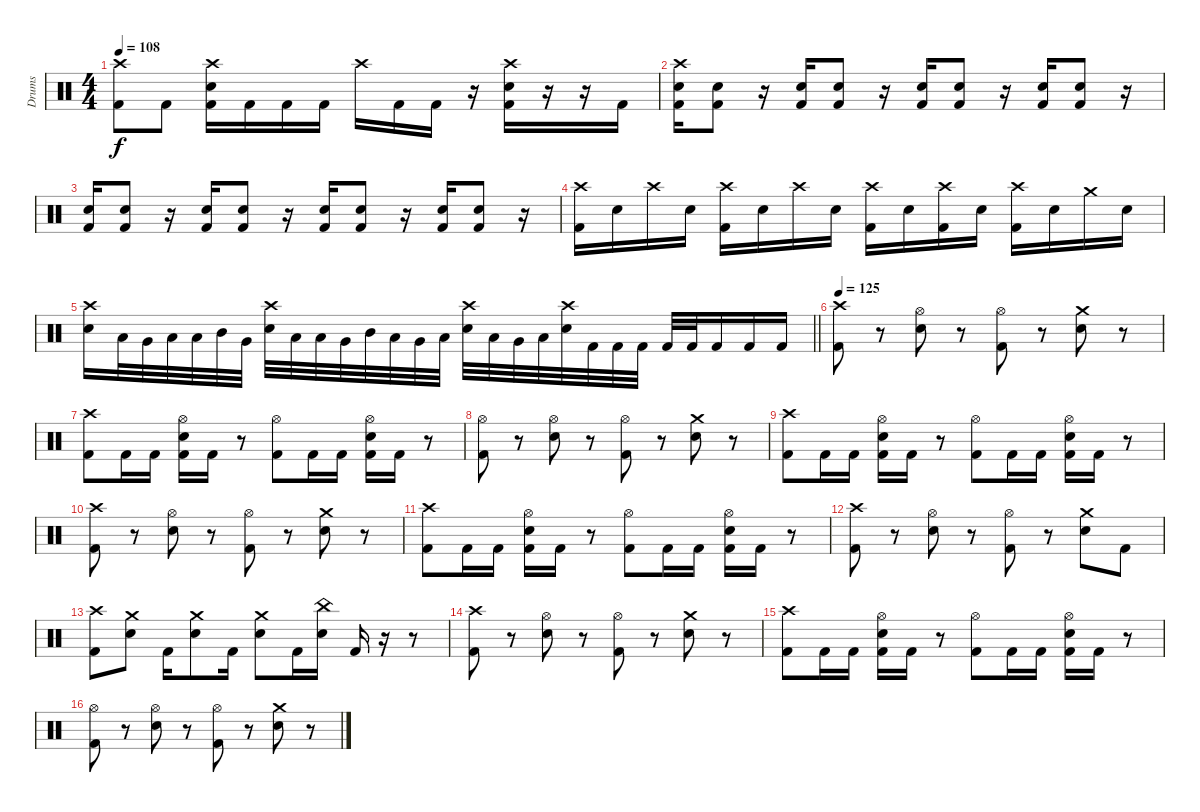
\track ("Drums" "Drums") {instrument percussion}
\staff
\articulation defaults
\ts (4 4)
\tempo 108
\clef neutral
\ks c
("Crash high (hit)" "Kick (hit) 2").8{dy f} "Kick (hit) 2".8 ("Crash high (hit)" "Electric Snare (hit)" "Kick (hit) 2").16 "Kick (hit) 2".16 "Kick (hit) 2".16 "Kick (hit) 2".16 "Crash high (hit)".16 "Kick (hit) 2".16 "Kick (hit) 2".16 r.16 ("Crash high (hit)" "Electric Snare (hit)" "Kick (hit) 2").16 r.16 r.16 "Kick (hit) 2".16 |
("Crash high (hit)" "Electric Snare (hit)" "Kick (hit) 2").16 ("Electric Snare (hit)" "Kick (hit) 2").8 r.16 ("Electric Snare (hit)" "Kick (hit) 2").16 ("Electric Snare (hit)" "Kick (hit) 2").8 r.16 ("Electric Snare (hit)" "Kick (hit) 2").16 ("Electric Snare (hit)" "Kick (hit) 2").8 r.16 ("Electric Snare (hit)" "Kick (hit) 2").16 ("Electric Snare (hit)" "Kick (hit) 2").8 r.16 |
("Electric Snare (hit)" "Kick (hit) 2").16 ("Electric Snare (hit)" "Kick (hit) 2").8 r.16 ("Electric Snare (hit)" "Kick (hit) 2").16 ("Electric Snare (hit)" "Kick (hit) 2").8 r.16 ("Electric Snare (hit)" "Kick (hit) 2").16 ("Electric Snare (hit)" "Kick (hit) 2").8 r.16 ("Electric Snare (hit)" "Kick (hit) 2").16 ("Electric Snare (hit)" "Kick (hit) 2").8 r.16 |
("Crash high (hit)" "Kick (hit) 2").16 "Electric Snare (hit)".16 "Crash high (hit)".16 "Electric Snare (hit)".16 ("Crash high (hit)" "Kick (hit) 2").16 "Electric Snare (hit)".16 "Crash high (hit)".16 "Electric Snare (hit)".16 ("Crash high (hit)" "Kick (hit) 2").16 "Electric Snare (hit)".16 ("Crash high (hit)" "Kick (hit) 2").16 "Electric Snare (hit)".16 ("Crash high (hit)" "Kick (hit) 2").16 "Electric Snare (hit)".16 "Crash medium (hit)".16 "Electric Snare (hit)".16 |
\barLineRight lightlight
("Crash high (hit)" "Electric Snare (hit)").16{volume 16} "Low Tom (hit)".32 "Very Low Tom (hit)".32 "Low Floor Tom (hit)".32 "Low Tom (hit)".32 "Mid Tom (hit)".32 "Very Low Tom (hit)".32 ("Crash high (hit)" "Electric Snare (hit)").32 "Low Tom (hit)".32 "Low Floor Tom (hit)".32 "Very Low Tom (hit)".32 "Mid Tom (hit)".32 "Low Tom (hit)".32 "Very Low Tom (hit)".32 "Low Tom (hit)".32 ("Crash high (hit)" "Electric Snare (hit)").32 "Low Tom (hit)".32 "Very Low Tom (hit)".32 "Low Floor Tom (hit)".32 ("Crash high (hit)" "Electric Snare (hit)").32 "Kick (hit) 2".32 "Kick (hit) 2".32 "Kick (hit) 2".32 "Kick (hit) 2".32 "Kick (hit) 2".32 "Kick (hit) 2".16 "Kick (hit) 2".16 "Kick (hit) 2".16 |
\section ("" "")
\tempo 125
("Crash high (hit)" "Kick (hit) 2").8{volume 14} r.8 ("Hi-Hat (open)" "Electric Snare (hit)").8 r.8 ("Hi-Hat (open)" "Kick (hit) 2").8 r.8 ("Crash medium (hit)" "Electric Snare (hit)").8 r.8 |
("Crash high (hit)" "Kick (hit) 2").8 "Kick (hit) 2".16 "Kick (hit) 2".16 ("Hi-Hat (open)" "Electric Snare (hit)" "Kick (hit) 2").16 "Kick (hit) 2".16 r.8 ("Hi-Hat (open)" "Kick (hit) 2").8 "Kick (hit) 2".16 "Kick (hit) 2".16 ("Hi-Hat (open)" "Electric Snare (hit)" "Kick (hit) 2").16 "Kick (hit) 2".16 r.8 |
("Hi-Hat (open)" "Kick (hit) 2").8 r.8 ("Hi-Hat (open)" "Electric Snare (hit)").8 r.8 ("Hi-Hat (open)" "Kick (hit) 2").8 r.8 ("Crash medium (hit)" "Electric Snare (hit)").8 r.8 |
("Crash high (hit)" "Kick (hit) 2").8 "Kick (hit) 2".16 "Kick (hit) 2".16 ("Hi-Hat (open)" "Electric Snare (hit)" "Kick (hit) 2").16 "Kick (hit) 2".16 r.8 ("Hi-Hat (open)" "Kick (hit) 2").8 "Kick (hit) 2".16 "Kick (hit) 2".16 ("Hi-Hat (open)" "Electric Snare (hit)" "Kick (hit) 2").16 "Kick (hit) 2".16 r.8 |
("Crash high (hit)" "Kick (hit) 2").8 r.8 ("Hi-Hat (open)" "Electric Snare (hit)").8 r.8 ("Hi-Hat (open)" "Kick (hit) 2").8 r.8 ("Crash medium (hit)" "Electric Snare (hit)").8 r.8 |
("Crash high (hit)" "Kick (hit) 2").8 "Kick (hit) 2".16 "Kick (hit) 2".16 ("Hi-Hat (open)" "Electric Snare (hit)" "Kick (hit) 2").16 "Kick (hit) 2".16 r.8 ("Hi-Hat (open)" "Kick (hit) 2").8 "Kick (hit) 2".16 "Kick (hit) 2".16 ("Hi-Hat (open)" "Electric Snare (hit)" "Kick (hit) 2").16 "Kick (hit) 2".16 r.8 |
("Crash high (hit)" "Kick (hit) 2").8 r.8 ("Hi-Hat (open)" "Electric Snare (hit)").8 r.8 ("Hi-Hat (open)" "Kick (hit) 2").8 r.8 ("Crash medium (hit)" "Electric Snare (hit)").8 "Kick (hit) 2".8 |
("Crash high (hit)" "Kick (hit) 2").8 ("Crash medium (hit)" "Electric Snare (hit)").8 "Kick (hit) 2".16 ("Crash medium (hit)" "Electric Snare (hit)").8 "Kick (hit) 2".16 ("Crash medium (hit)" "Electric Snare (hit)").8 "Kick (hit) 2".16 ("China (hit)" "Electric Snare (hit)").16 "Kick (hit) 2".16 r.16 r.8 |
("Crash high (hit)" "Kick (hit) 2").8 r.8 ("Hi-Hat (open)" "Electric Snare (hit)").8 r.8 ("Hi-Hat (open)" "Kick (hit) 2").8 r.8 ("Crash medium (hit)" "Electric Snare (hit)").8 r.8 |
("Crash high (hit)" "Kick (hit) 2").8 "Kick (hit) 2".16 "Kick (hit) 2".16 ("Hi-Hat (open)" "Electric Snare (hit)" "Kick (hit) 2").16 "Kick (hit) 2".16 r.8 ("Hi-Hat (open)" "Kick (hit) 2").8 "Kick (hit) 2".16 "Kick (hit) 2".16 ("Hi-Hat (open)" "Electric Snare (hit)" "Kick (hit) 2").16 "Kick (hit) 2".16 r.8 |
("Hi-Hat (open)" "Kick (hit) 2").8 r.8 ("Hi-Hat (open)" "Electric Snare (hit)").8 r.8 ("Hi-Hat (open)" "Kick (hit) 2").8 r.8 ("Crash medium (hit)" "Electric Snare (hit)").8 r.8
